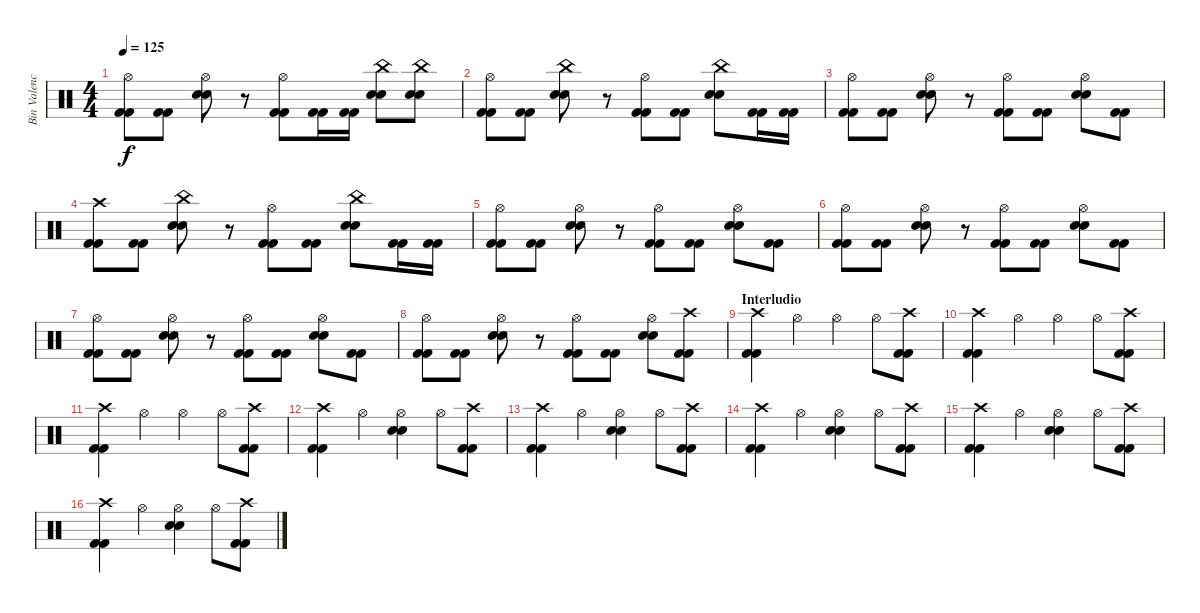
\track ("Bin Valencia (Bateria)" "Bin Valenc") {instrument percussion}
\staff {score}
\articulation defaults
\ts (4 4)
\tempo 125
\clef neutral
\ks c
("Hi-Hat (open)" "Kick (hit) 2" "Kick (hit) 2").8{dy f} ("Kick (hit) 2" "Kick (hit) 2").8 ("Hi-Hat (open)" "Snare (hit) 2" "Snare (hit) 2").8 r.8 ("Hi-Hat (open)" "Kick (hit) 2" "Kick (hit) 2").8 ("Kick (hit) 2" "Kick (hit) 2").16 ("Kick (hit) 2" "Kick (hit) 2").16 ("China (hit)" "Snare (hit) 2" "Snare (hit) 2").8 ("China (hit)" "Snare (hit) 2" "Snare (hit) 2").8 |
("Hi-Hat (open)" "Kick (hit) 2" "Kick (hit) 2").8 ("Kick (hit) 2" "Kick (hit) 2").8 ("China (hit)" "Snare (hit) 2" "Snare (hit) 2").8 r.8 ("Hi-Hat (open)" "Kick (hit) 2" "Kick (hit) 2").8 ("Kick (hit) 2" "Kick (hit) 2").8 ("China (hit)" "Snare (hit) 2" "Snare (hit) 2").8 ("Kick (hit) 2" "Kick (hit) 2").16 ("Kick (hit) 2" "Kick (hit) 2").16 |
("Hi-Hat (open)" "Kick (hit) 2" "Kick (hit) 2").8 ("Kick (hit) 2" "Kick (hit) 2").8 ("Hi-Hat (open)" "Snare (hit) 2" "Snare (hit) 2").8 r.8 ("Hi-Hat (open)" "Kick (hit) 2" "Kick (hit) 2").8 ("Kick (hit) 2" "Kick (hit) 2").8 ("Hi-Hat (open)" "Snare (hit) 2" "Snare (hit) 2").8 ("Kick (hit) 2" "Kick (hit) 2").8 |
("Crash high (hit)" "Kick (hit) 2" "Kick (hit) 2").8 ("Kick (hit) 2" "Kick (hit) 2").8 ("China (hit)" "Snare (hit) 2" "Snare (hit) 2").8 r.8 ("Hi-Hat (open)" "Kick (hit) 2" "Kick (hit) 2").8 ("Kick (hit) 2" "Kick (hit) 2").8 ("China (hit)" "Snare (hit) 2" "Snare (hit) 2").8 ("Kick (hit) 2" "Kick (hit) 2").16 ("Kick (hit) 2" "Kick (hit) 2").16 |
("Hi-Hat (open)" "Kick (hit) 2" "Kick (hit) 2").8 ("Kick (hit) 2" "Kick (hit) 2").8 ("Hi-Hat (open)" "Snare (hit) 2" "Snare (hit) 2").8 r.8 ("Hi-Hat (open)" "Kick (hit) 2" "Kick (hit) 2").8 ("Kick (hit) 2" "Kick (hit) 2").8 ("Hi-Hat (open)" "Snare (hit) 2" "Snare (hit) 2").8 ("Kick (hit) 2" "Kick (hit) 2").8 |
("Hi-Hat (open)" "Kick (hit) 2" "Kick (hit) 2").8 ("Kick (hit) 2" "Kick (hit) 2").8 ("Hi-Hat (open)" "Snare (hit) 2" "Snare (hit) 2").8 r.8 ("Hi-Hat (open)" "Kick (hit) 2" "Kick (hit) 2").8 ("Kick (hit) 2" "Kick (hit) 2").8 ("Hi-Hat (open)" "Snare (hit) 2" "Snare (hit) 2").8 ("Kick (hit) 2" "Kick (hit) 2").8 |
("Hi-Hat (open)" "Kick (hit) 2" "Kick (hit) 2").8 ("Kick (hit) 2" "Kick (hit) 2").8 ("Hi-Hat (open)" "Snare (hit) 2" "Snare (hit) 2").8 r.8 ("Hi-Hat (open)" "Kick (hit) 2" "Kick (hit) 2").8 ("Kick (hit) 2" "Kick (hit) 2").8 ("Hi-Hat (open)" "Snare (hit) 2" "Snare (hit) 2").8 ("Kick (hit) 2" "Kick (hit) 2").8 |
("Hi-Hat (open)" "Kick (hit) 2" "Kick (hit) 2").8 ("Kick (hit) 2" "Kick (hit) 2").8 ("Hi-Hat (open)" "Snare (hit) 2" "Snare (hit) 2").8 r.8 ("Hi-Hat (open)" "Kick (hit) 2" "Kick (hit) 2").8 ("Kick (hit) 2" "Kick (hit) 2").8 ("Hi-Hat (open)" "Snare (hit) 2" "Snare (hit) 2").8 ("Crash high (hit)" "Kick (hit) 2" "Kick (hit) 2").8 |
\section ("" "Interludio")
("Crash high (hit)" "Kick (hit) 2" "Kick (hit) 2").4 "Hi-Hat (open)".4 "Hi-Hat (open)".4 "Hi-Hat (open)".8 ("Crash high (hit)" "Kick (hit) 2" "Kick (hit) 2").8 |
("Crash high (hit)" "Kick (hit) 2" "Kick (hit) 2").4 "Hi-Hat (open)".4 "Hi-Hat (open)".4 "Hi-Hat (open)".8 ("Crash high (hit)" "Kick (hit) 2" "Kick (hit) 2").8 |
("Crash high (hit)" "Kick (hit) 2" "Kick (hit) 2").4 "Hi-Hat (open)".4 "Hi-Hat (open)".4 "Hi-Hat (open)".8 ("Crash high (hit)" "Kick (hit) 2" "Kick (hit) 2").8 |
("Crash high (hit)" "Kick (hit) 2" "Kick (hit) 2").4 "Hi-Hat (open)".4 ("Hi-Hat (open)" "Snare (hit) 2" "Snare (hit) 2").4 "Hi-Hat (open)".8 ("Crash high (hit)" "Kick (hit) 2" "Kick (hit) 2").8 |
("Crash high (hit)" "Kick (hit) 2" "Kick (hit) 2").4 "Hi-Hat (open)".4 ("Hi-Hat (open)" "Snare (hit) 2" "Snare (hit) 2").4 "Hi-Hat (open)".8 ("Crash high (hit)" "Kick (hit) 2" "Kick (hit) 2").8 |
("Crash high (hit)" "Kick (hit) 2" "Kick (hit) 2").4 "Hi-Hat (open)".4 ("Hi-Hat (open)" "Snare (hit) 2" "Snare (hit) 2").4 "Hi-Hat (open)".8 ("Crash high (hit)" "Kick (hit) 2" "Kick (hit) 2").8 |
("Crash high (hit)" "Kick (hit) 2" "Kick (hit) 2").4 "Hi-Hat (open)".4 ("Hi-Hat (open)" "Snare (hit) 2" "Snare (hit) 2").4 "Hi-Hat (open)".8 ("Crash high (hit)" "Kick (hit) 2" "Kick (hit) 2").8 |
("Crash high (hit)" "Kick (hit) 2" "Kick (hit) 2").4 "Hi-Hat (open)".4 ("Hi-Hat (open)" "Snare (hit) 2" "Snare (hit) 2").4 "Hi-Hat (open)".8 ("Crash high (hit)" "Kick (hit) 2" "Kick (hit) 2").8
